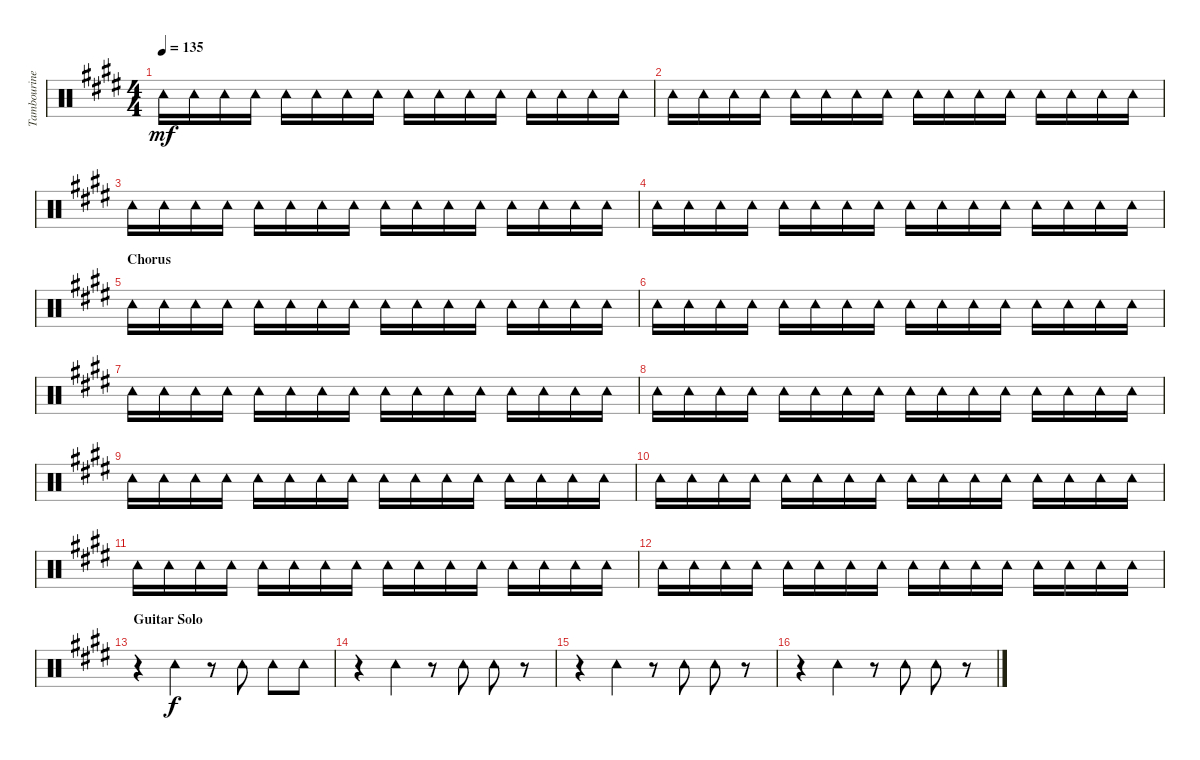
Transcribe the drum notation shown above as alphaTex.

\track ("Tambourine" "Tambourine") {instrument percussion}
\staff {score}
\articulation defaults
\ts (4 4)
\tempo 135
\clef neutral
\ks e "Tambourine (hit)".16{dy mf} "Tambourine (hit)".16 "Tambourine (hit)".16 "Tambourine (hit)".16 "Tambourine (hit)".16 "Tambourine (hit)".16 "Tambourine (hit)".16 "Tambourine (hit)".16 "Tambourine (hit)".16 "Tambourine (hit)".16 "Tambourine (hit)".16 "Tambourine (hit)".16 "Tambourine (hit)".16 "Tambourine (hit)".16 "Tambourine (hit)".16 "Tambourine (hit)".16
|
"Tambourine (hit)".16 "Tambourine (hit)".16 "Tambourine (hit)".16 "Tambourine (hit)".16 "Tambourine (hit)".16 "Tambourine (hit)".16 "Tambourine (hit)".16 "Tambourine (hit)".16 "Tambourine (hit)".16 "Tambourine (hit)".16 "Tambourine (hit)".16 "Tambourine (hit)".16 "Tambourine (hit)".16 "Tambourine (hit)".16 "Tambourine (hit)".16 "Tambourine (hit)".16 |
"Tambourine (hit)".16 "Tambourine (hit)".16 "Tambourine (hit)".16 "Tambourine (hit)".16 "Tambourine (hit)".16 "Tambourine (hit)".16 "Tambourine (hit)".16 "Tambourine (hit)".16 "Tambourine (hit)".16 "Tambourine (hit)".16 "Tambourine (hit)".16 "Tambourine (hit)".16 "Tambourine (hit)".16 "Tambourine (hit)".16 "Tambourine (hit)".16 "Tambourine (hit)".16 |
"Tambourine (hit)".16 "Tambourine (hit)".16 "Tambourine (hit)".16 "Tambourine (hit)".16 "Tambourine (hit)".16 "Tambourine (hit)".16 "Tambourine (hit)".16 "Tambourine (hit)".16 "Tambourine (hit)".16 "Tambourine (hit)".16 "Tambourine (hit)".16 "Tambourine (hit)".16 "Tambourine (hit)".16 "Tambourine (hit)".16 "Tambourine (hit)".16 "Tambourine (hit)".16 |
\section ("" "Chorus")
"Tambourine (hit)".16 "Tambourine (hit)".16 "Tambourine (hit)".16 "Tambourine (hit)".16 "Tambourine (hit)".16 "Tambourine (hit)".16 "Tambourine (hit)".16 "Tambourine (hit)".16 "Tambourine (hit)".16 "Tambourine (hit)".16 "Tambourine (hit)".16 "Tambourine (hit)".16 "Tambourine (hit)".16 "Tambourine (hit)".16 "Tambourine (hit)".16 "Tambourine (hit)".16 |
"Tambourine (hit)".16 "Tambourine (hit)".16 "Tambourine (hit)".16 "Tambourine (hit)".16 "Tambourine (hit)".16 "Tambourine (hit)".16 "Tambourine (hit)".16 "Tambourine (hit)".16 "Tambourine (hit)".16 "Tambourine (hit)".16 "Tambourine (hit)".16 "Tambourine (hit)".16 "Tambourine (hit)".16 "Tambourine (hit)".16 "Tambourine (hit)".16 "Tambourine (hit)".16 |
"Tambourine (hit)".16 "Tambourine (hit)".16 "Tambourine (hit)".16 "Tambourine (hit)".16 "Tambourine (hit)".16 "Tambourine (hit)".16 "Tambourine (hit)".16 "Tambourine (hit)".16 "Tambourine (hit)".16 "Tambourine (hit)".16 "Tambourine (hit)".16 "Tambourine (hit)".16 "Tambourine (hit)".16 "Tambourine (hit)".16 "Tambourine (hit)".16 "Tambourine (hit)".16 |
"Tambourine (hit)".16 "Tambourine (hit)".16 "Tambourine (hit)".16 "Tambourine (hit)".16 "Tambourine (hit)".16 "Tambourine (hit)".16 "Tambourine (hit)".16 "Tambourine (hit)".16 "Tambourine (hit)".16 "Tambourine (hit)".16 "Tambourine (hit)".16 "Tambourine (hit)".16 "Tambourine (hit)".16 "Tambourine (hit)".16 "Tambourine (hit)".16 "Tambourine (hit)".16 |
"Tambourine (hit)".16 "Tambourine (hit)".16 "Tambourine (hit)".16 "Tambourine (hit)".16 "Tambourine (hit)".16 "Tambourine (hit)".16 "Tambourine (hit)".16 "Tambourine (hit)".16 "Tambourine (hit)".16 "Tambourine (hit)".16 "Tambourine (hit)".16 "Tambourine (hit)".16 "Tambourine (hit)".16 "Tambourine (hit)".16 "Tambourine (hit)".16 "Tambourine (hit)".16 |
"Tambourine (hit)".16 "Tambourine (hit)".16 "Tambourine (hit)".16 "Tambourine (hit)".16 "Tambourine (hit)".16 "Tambourine (hit)".16 "Tambourine (hit)".16 "Tambourine (hit)".16 "Tambourine (hit)".16 "Tambourine (hit)".16 "Tambourine (hit)".16 "Tambourine (hit)".16 "Tambourine (hit)".16 "Tambourine (hit)".16 "Tambourine (hit)".16 "Tambourine (hit)".16 |
"Tambourine (hit)".16 "Tambourine (hit)".16 "Tambourine (hit)".16 "Tambourine (hit)".16 "Tambourine (hit)".16 "Tambourine (hit)".16 "Tambourine (hit)".16 "Tambourine (hit)".16 "Tambourine (hit)".16 "Tambourine (hit)".16 "Tambourine (hit)".16 "Tambourine (hit)".16 "Tambourine (hit)".16 "Tambourine (hit)".16 "Tambourine (hit)".16 "Tambourine (hit)".16 |
"Tambourine (hit)".16 "Tambourine (hit)".16 "Tambourine (hit)".16 "Tambourine (hit)".16 "Tambourine (hit)".16 "Tambourine (hit)".16 "Tambourine (hit)".16 "Tambourine (hit)".16 "Tambourine (hit)".16 "Tambourine (hit)".16 "Tambourine (hit)".16 "Tambourine (hit)".16 "Tambourine (hit)".16 "Tambourine (hit)".16 "Tambourine (hit)".16 "Tambourine (hit)".16 |
\section ("" "Guitar Solo")
r.4 "Tambourine (hit)".4{dy f} r.8 "Tambourine (hit)".8 "Tambourine (hit)".8 "Tambourine (hit)".8 |
r.4 "Tambourine (hit)".4 r.8 "Tambourine (hit)".8 "Tambourine (hit)".8 r.8 |
r.4 "Tambourine (hit)".4 r.8 "Tambourine (hit)".8 "Tambourine (hit)".8 r.8 |
r.4 "Tambourine (hit)".4 r.8 "Tambourine (hit)".8 "Tambourine (hit)".8 r.8
